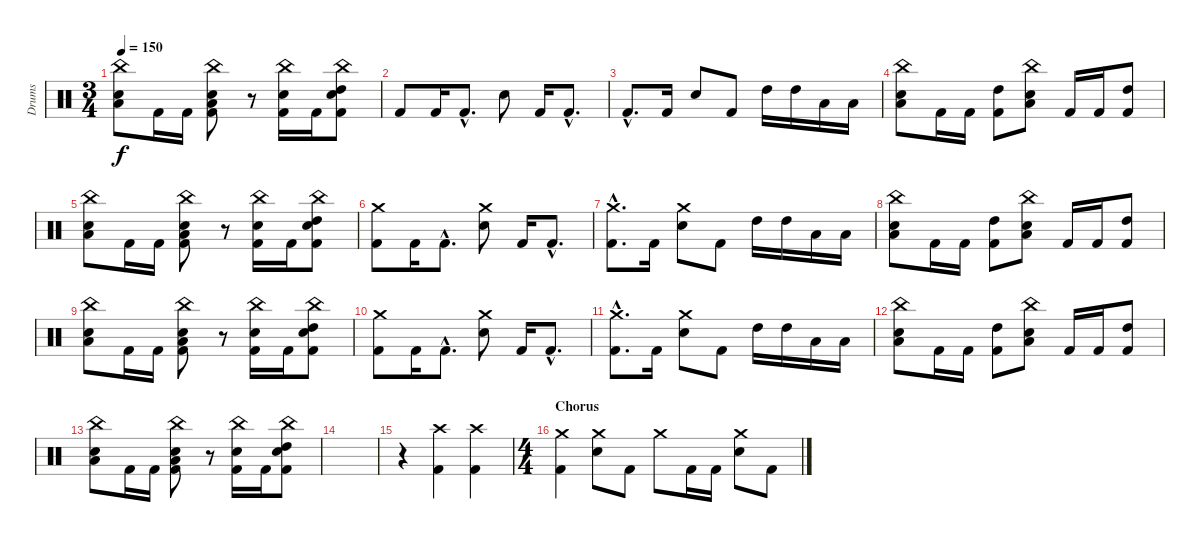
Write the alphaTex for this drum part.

\track ("Drums" "Drums") {instrument percussion}
\staff {score}
\articulation defaults
\ts (3 4)
\tempo 150
\clef neutral
\ks c
("China (hit)" "Low Tom (hit)" "Electric Snare (hit)").8{dy f} "Kick (hit) 2".16 "Kick (hit) 2".16 ("China (hit)" "Low Tom (hit)" "Electric Snare (hit)" "Kick (hit) 2").8 r.8 ("China (hit)" "Electric Snare (hit)" "Kick (hit) 2").16 "Kick (hit) 2".16 ("China (hit)" "High Tom (hit)" "Electric Snare (hit)" "Kick (hit) 2").8 |
"Kick (hit) 2".8 "Kick (hit) 2".16 "Kick (hit) 2"{hac}.8{d} "Electric Snare (hit)".8 "Kick (hit) 2".16 "Kick (hit) 2"{hac}.8{d} |
"Kick (hit) 2"{hac}.8{d} "Kick (hit) 2".16 "Electric Snare (hit)".8 "Kick (hit) 2".8 "High Tom (hit)".16 "High Tom (hit)".16 "Low Tom (hit)".16 "Low Tom (hit)".16 |
("China (hit)" "Low Tom (hit)" "Electric Snare (hit)").8 "Kick (hit) 2".16 "Kick (hit) 2".16 ("High Tom (hit)" "Kick (hit) 2").8 ("China (hit)" "Low Tom (hit)" "Electric Snare (hit)").8 "Kick (hit) 2".16 "Kick (hit) 2".16 ("High Tom (hit)" "Kick (hit) 2").8 |
("China (hit)" "Low Tom (hit)" "Electric Snare (hit)").8 "Kick (hit) 2".16 "Kick (hit) 2".16 ("China (hit)" "Low Tom (hit)" "Electric Snare (hit)" "Kick (hit) 2").8 r.8 ("China (hit)" "Electric Snare (hit)" "Kick (hit) 2").16 "Kick (hit) 2".16 ("China (hit)" "High Tom (hit)" "Electric Snare (hit)" "Kick (hit) 2").8 |
("Crash medium (hit)" "Kick (hit) 2").8 "Kick (hit) 2".16 "Kick (hit) 2"{hac}.8{d} ("Crash medium (hit)" "Electric Snare (hit)").8 "Kick (hit) 2".16 "Kick (hit) 2"{hac}.8{d} |
("Crash medium (hit)"{hac} "Kick (hit) 2"{hac}).8{d} "Kick (hit) 2".16 ("Crash medium (hit)" "Electric Snare (hit)").8 "Kick (hit) 2".8 "High Tom (hit)".16 "High Tom (hit)".16 "Low Tom (hit)".16 "Low Tom (hit)".16 |
("China (hit)" "Low Tom (hit)" "Electric Snare (hit)").8 "Kick (hit) 2".16 "Kick (hit) 2".16 ("High Tom (hit)" "Kick (hit) 2").8 ("China (hit)" "Low Tom (hit)" "Electric Snare (hit)").8 "Kick (hit) 2".16 "Kick (hit) 2".16 ("High Tom (hit)" "Kick (hit) 2").8 |
("China (hit)" "Low Tom (hit)" "Electric Snare (hit)").8 "Kick (hit) 2".16 "Kick (hit) 2".16 ("China (hit)" "Low Tom (hit)" "Electric Snare (hit)" "Kick (hit) 2").8 r.8 ("China (hit)" "Electric Snare (hit)" "Kick (hit) 2").16 "Kick (hit) 2".16 ("China (hit)" "High Tom (hit)" "Electric Snare (hit)" "Kick (hit) 2").8 |
("Crash medium (hit)" "Kick (hit) 2").8 "Kick (hit) 2".16 "Kick (hit) 2"{hac}.8{d} ("Crash medium (hit)" "Electric Snare (hit)").8 "Kick (hit) 2".16 "Kick (hit) 2"{hac}.8{d} |
("Crash medium (hit)"{hac} "Kick (hit) 2"{hac}).8{d} "Kick (hit) 2".16 ("Crash medium (hit)" "Electric Snare (hit)").8 "Kick (hit) 2".8 "High Tom (hit)".16 "High Tom (hit)".16 "Low Tom (hit)".16 "Low Tom (hit)".16 |
("China (hit)" "Low Tom (hit)" "Electric Snare (hit)").8 "Kick (hit) 2".16 "Kick (hit) 2".16 ("High Tom (hit)" "Kick (hit) 2").8 ("China (hit)" "Low Tom (hit)" "Electric Snare (hit)").8 "Kick (hit) 2".16 "Kick (hit) 2".16 ("High Tom (hit)" "Kick (hit) 2").8 |
("China (hit)" "Low Tom (hit)" "Electric Snare (hit)").8 "Kick (hit) 2".16 "Kick (hit) 2".16 ("China (hit)" "Low Tom (hit)" "Electric Snare (hit)" "Kick (hit) 2").8 r.8 ("China (hit)" "Electric Snare (hit)" "Kick (hit) 2").16 "Kick (hit) 2".16 ("China (hit)" "High Tom (hit)" "Electric Snare (hit)" "Kick (hit) 2").8 |
|
r.4 ("Crash high (hit)" "Kick (hit) 2").4 ("Crash high (hit)" "Kick (hit) 2").4 |
\ts (4 4)
\section ("" "Chorus")
("Crash medium (hit)" "Kick (hit) 2").4 ("Crash medium (hit)" "Electric Snare (hit)").8 "Kick (hit) 2".8 "Crash medium (hit)".8 "Kick (hit) 2".16 "Kick (hit) 2".16 ("Crash medium (hit)" "Electric Snare (hit)").8 "Kick (hit) 2".8
